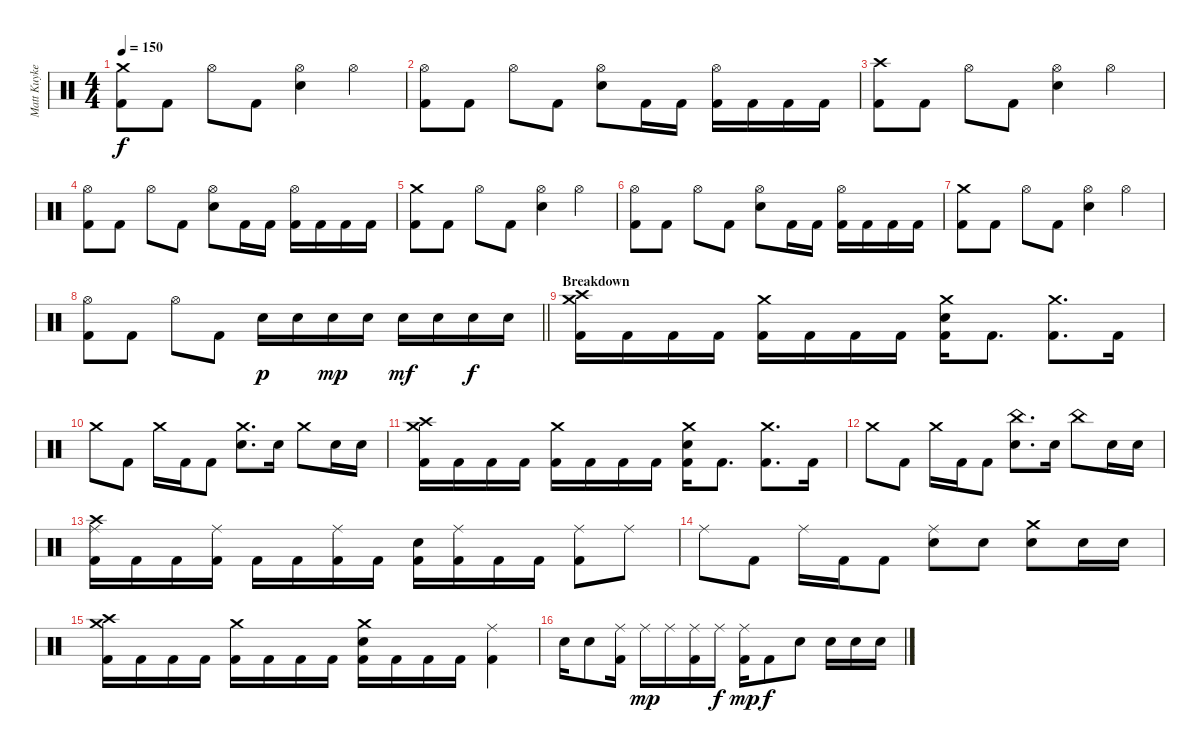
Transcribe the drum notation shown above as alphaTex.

\track ("Matt Kuykendall" "Matt Kuyke") {instrument percussion}
\staff {score}
\articulation defaults
\ts (4 4)
\tempo 150
\clef neutral
\ks c
("Crash medium (hit)" "Kick (hit) 2").8{dy f} "Kick (hit) 2".8 "Hi-Hat (open)".8 "Kick (hit) 2".8 ("Hi-Hat (open)" "Electric Snare (hit)").4 "Hi-Hat (open)".4 |
("Hi-Hat (open)" "Kick (hit) 2").8 "Kick (hit) 2".8 "Hi-Hat (open)".8 "Kick (hit) 2".8 ("Hi-Hat (open)" "Electric Snare (hit)").8 "Kick (hit) 2".16 "Kick (hit) 2".16 ("Hi-Hat (open)" "Kick (hit) 2").16 "Kick (hit) 2".16 "Kick (hit) 2".16 "Kick (hit) 2".16 |
("Crash high (hit)" "Kick (hit) 2").8 "Kick (hit) 2".8 "Hi-Hat (open)".8 "Kick (hit) 2".8 ("Hi-Hat (open)" "Electric Snare (hit)").4 "Hi-Hat (open)".4 |
("Hi-Hat (open)" "Kick (hit) 2").8 "Kick (hit) 2".8 "Hi-Hat (open)".8 "Kick (hit) 2".8 ("Hi-Hat (open)" "Electric Snare (hit)").8 "Kick (hit) 2".16 "Kick (hit) 2".16 ("Hi-Hat (open)" "Kick (hit) 2").16 "Kick (hit) 2".16 "Kick (hit) 2".16 "Kick (hit) 2".16 |
("Crash medium (hit)" "Kick (hit) 2").8 "Kick (hit) 2".8 "Hi-Hat (open)".8 "Kick (hit) 2".8 ("Hi-Hat (open)" "Electric Snare (hit)").4 "Hi-Hat (open)".4 |
("Hi-Hat (open)" "Kick (hit) 2").8 "Kick (hit) 2".8 "Hi-Hat (open)".8 "Kick (hit) 2".8 ("Hi-Hat (open)" "Electric Snare (hit)").8 "Kick (hit) 2".16 "Kick (hit) 2".16 ("Hi-Hat (open)" "Kick (hit) 2").16 "Kick (hit) 2".16 "Kick (hit) 2".16 "Kick (hit) 2".16 |
("Crash medium (hit)" "Kick (hit) 2").8 "Kick (hit) 2".8 "Hi-Hat (open)".8 "Kick (hit) 2".8 ("Hi-Hat (open)" "Electric Snare (hit)").4 "Hi-Hat (open)".4 |
\barLineRight lightlight
("Hi-Hat (open)" "Kick (hit) 2").8 "Kick (hit) 2".8 "Hi-Hat (open)".8 "Kick (hit) 2".8 "Electric Snare (hit)".16{dy p} "Electric Snare (hit)".16 "Electric Snare (hit)".16{dy mp} "Electric Snare (hit)".16 "Electric Snare (hit)".16{dy mf} "Electric Snare (hit)".16 "Electric Snare (hit)".16{dy f} "Electric Snare (hit)".16 |
\section ("" "Breakdown")
("Crash medium (hit)" "Crash high (hit)" "Kick (hit) 2").16 "Kick (hit) 2".16 "Kick (hit) 2".16 "Kick (hit) 2".16 ("Crash medium (hit)" "Kick (hit) 2").16 "Kick (hit) 2".16 "Kick (hit) 2".16 "Kick (hit) 2".16 ("Crash medium (hit)" "Electric Snare (hit)" "Kick (hit) 2").16 "Kick (hit) 2".8{d} ("Crash medium (hit)" "Kick (hit) 2").8{d} "Kick (hit) 2".16 |
"Crash medium (hit)".8 "Kick (hit) 2".8 "Crash medium (hit)".16 "Kick (hit) 2".16 "Kick (hit) 2".8 ("Crash medium (hit)" "Electric Snare (hit)").8{d} "Electric Snare (hit)".16 "Crash medium (hit)".8 "Electric Snare (hit)".16 "Electric Snare (hit)".16 |
("Crash medium (hit)" "Crash high (hit)" "Kick (hit) 2").16 "Kick (hit) 2".16 "Kick (hit) 2".16 "Kick (hit) 2".16 ("Crash medium (hit)" "Kick (hit) 2").16 "Kick (hit) 2".16 "Kick (hit) 2".16 "Kick (hit) 2".16 ("Crash medium (hit)" "Electric Snare (hit)" "Kick (hit) 2").16 "Kick (hit) 2".8{d} ("Crash medium (hit)" "Kick (hit) 2").8{d} "Kick (hit) 2".16 |
"Crash medium (hit)".8 "Kick (hit) 2".8 "Crash medium (hit)".16 "Kick (hit) 2".16 "Kick (hit) 2".8 ("China (hit)" "Electric Snare (hit)").8{d} "Electric Snare (hit)".16 "China (hit)".8 "Electric Snare (hit)".16 "Electric Snare (hit)".16 |
("Ride (middle)" "Crash high (hit)" "Kick (hit) 2").16 "Kick (hit) 2".16 "Kick (hit) 2".16 ("Ride (middle)" "Kick (hit) 2").16 "Kick (hit) 2".16 "Kick (hit) 2".16 ("Ride (middle)" "Kick (hit) 2").16 "Kick (hit) 2".16 ("Electric Snare (hit)" "Kick (hit) 2").16 ("Ride (middle)" "Kick (hit) 2").16 "Kick (hit) 2".16 "Kick (hit) 2".16 ("Ride (middle)" "Kick (hit) 2").8 "Ride (middle)".8 |
"Ride (middle)".8 "Kick (hit) 2".8 "Ride (middle)".16 "Kick (hit) 2".16 "Kick (hit) 2".8 ("Ride (middle)" "Electric Snare (hit)").8 "Electric Snare (hit)".8 ("Crash medium (hit)" "Electric Snare (hit)").8 "Electric Snare (hit)".16 "Electric Snare (hit)".16 |
("Crash medium (hit)" "Crash high (hit)" "Kick (hit) 2").16 "Kick (hit) 2".16 "Kick (hit) 2".16 "Kick (hit) 2".16 ("Crash medium (hit)" "Kick (hit) 2").16 "Kick (hit) 2".16 "Kick (hit) 2".16 "Kick (hit) 2".16 ("Crash medium (hit)" "Electric Snare (hit)" "Kick (hit) 2").16 "Kick (hit) 2".16 "Kick (hit) 2".16 "Kick (hit) 2".16 ("Ride (middle)" "Kick (hit) 2").4 |
"Electric Snare (hit)".16 "Electric Snare (hit)".8 ("Ride (middle)" "Kick (hit) 2").16 "Ride (middle)".16{dy mp} "Ride (middle)".16 ("Ride (middle)" "Kick (hit) 2").16 "Ride (middle)".16{dy f} ("Ride (middle)" "Kick (hit) 2").16{dy mp} "Kick (hit) 2".8{dy f} "Electric Snare (hit)".8 "Electric Snare (hit)".16 "Electric Snare (hit)".16 "Electric Snare (hit)".16
